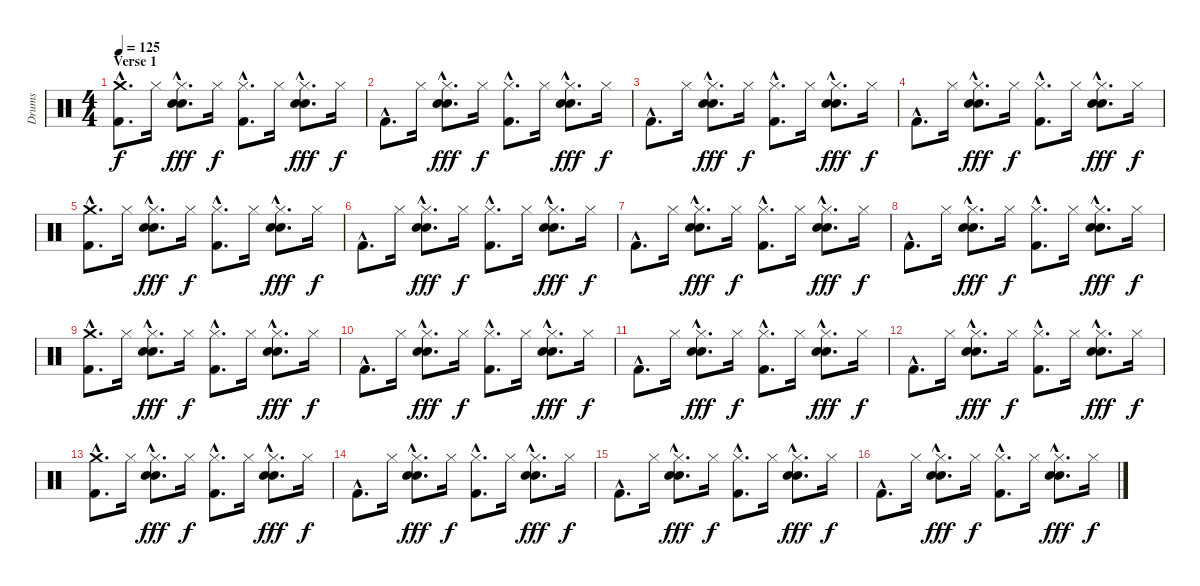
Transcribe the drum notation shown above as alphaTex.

\track ("Drums" "Drums") {instrument percussion}
\staff {score}
\articulation defaults
\ts (4 4)
\section ("" "Verse 1")
\tempo 125
\clef neutral
\ks c
("Crash medium (hit)"{hac} "Kick (hit) 2"{hac}).8{d dy f} "Hi-Hat (closed)".16 ("Hand Clap (hit)"{hac} "Hi-Hat (closed)"{hac} "Snare (hit) 2"{hac}).8{d dy fff} "Hi-Hat (closed)".16{dy f} ("Hi-Hat (closed)"{hac} "Kick (hit) 2"{hac}).8{d} "Hi-Hat (closed)".16 ("Hand Clap (hit)"{hac} "Hi-Hat (closed)"{hac} "Snare (hit) 2"{hac}).8{d dy fff} "Hi-Hat (closed)".16{dy f} |
"Kick (hit) 2"{hac}.8{d} "Hi-Hat (closed)".16 ("Hand Clap (hit)"{hac} "Hi-Hat (closed)"{hac} "Snare (hit) 2"{hac}).8{d dy fff} "Hi-Hat (closed)".16{dy f} ("Hi-Hat (closed)"{hac} "Kick (hit) 2"{hac}).8{d} "Hi-Hat (closed)".16 ("Hand Clap (hit)"{hac} "Hi-Hat (closed)"{hac} "Snare (hit) 2"{hac}).8{d dy fff} "Hi-Hat (closed)".16{dy f} |
"Kick (hit) 2"{hac}.8{d} "Hi-Hat (closed)".16 ("Hand Clap (hit)"{hac} "Hi-Hat (closed)"{hac} "Snare (hit) 2"{hac}).8{d dy fff} "Hi-Hat (closed)".16{dy f} ("Hi-Hat (closed)"{hac} "Kick (hit) 2"{hac}).8{d} "Hi-Hat (closed)".16 ("Hand Clap (hit)"{hac} "Hi-Hat (closed)"{hac} "Snare (hit) 2"{hac}).8{d dy fff} "Hi-Hat (closed)".16{dy f} |
"Kick (hit) 2"{hac}.8{d} "Hi-Hat (closed)".16 ("Hand Clap (hit)"{hac} "Hi-Hat (closed)"{hac} "Snare (hit) 2"{hac}).8{d dy fff} "Hi-Hat (closed)".16{dy f} ("Hi-Hat (closed)"{hac} "Kick (hit) 2"{hac}).8{d} "Hi-Hat (closed)".16 ("Hand Clap (hit)"{hac} "Hi-Hat (closed)"{hac} "Snare (hit) 2"{hac}).8{d dy fff} "Hi-Hat (closed)".16{dy f} |
("Crash medium (hit)"{hac} "Kick (hit) 2"{hac}).8{d} "Hi-Hat (closed)".16 ("Hand Clap (hit)"{hac} "Hi-Hat (closed)"{hac} "Snare (hit) 2"{hac}).8{d dy fff} "Hi-Hat (closed)".16{dy f} ("Hi-Hat (closed)"{hac} "Kick (hit) 2"{hac}).8{d} "Hi-Hat (closed)".16 ("Hand Clap (hit)"{hac} "Hi-Hat (closed)"{hac} "Snare (hit) 2"{hac}).8{d dy fff} "Hi-Hat (closed)".16{dy f} |
"Kick (hit) 2"{hac}.8{d} "Hi-Hat (closed)".16 ("Hand Clap (hit)"{hac} "Hi-Hat (closed)"{hac} "Snare (hit) 2"{hac}).8{d dy fff} "Hi-Hat (closed)".16{dy f} ("Hi-Hat (closed)"{hac} "Kick (hit) 2"{hac}).8{d} "Hi-Hat (closed)".16 ("Hand Clap (hit)"{hac} "Hi-Hat (closed)"{hac} "Snare (hit) 2"{hac}).8{d dy fff} "Hi-Hat (closed)".16{dy f} |
"Kick (hit) 2"{hac}.8{d} "Hi-Hat (closed)".16 ("Hand Clap (hit)"{hac} "Hi-Hat (closed)"{hac} "Snare (hit) 2"{hac}).8{d dy fff} "Hi-Hat (closed)".16{dy f} ("Hi-Hat (closed)"{hac} "Kick (hit) 2"{hac}).8{d} "Hi-Hat (closed)".16 ("Hand Clap (hit)"{hac} "Hi-Hat (closed)"{hac} "Snare (hit) 2"{hac}).8{d dy fff} "Hi-Hat (closed)".16{dy f} |
"Kick (hit) 2"{hac}.8{d} "Hi-Hat (closed)".16 ("Hand Clap (hit)"{hac} "Hi-Hat (closed)"{hac} "Snare (hit) 2"{hac}).8{d dy fff} "Hi-Hat (closed)".16{dy f} ("Hi-Hat (closed)"{hac} "Kick (hit) 2"{hac}).8{d} "Hi-Hat (closed)".16 ("Hand Clap (hit)"{hac} "Hi-Hat (closed)"{hac} "Snare (hit) 2"{hac}).8{d dy fff} "Hi-Hat (closed)".16{dy f} |
("Crash medium (hit)"{hac} "Kick (hit) 2"{hac}).8{d} "Hi-Hat (closed)".16 ("Hand Clap (hit)"{hac} "Hi-Hat (closed)"{hac} "Snare (hit) 2"{hac}).8{d dy fff} "Hi-Hat (closed)".16{dy f} ("Hi-Hat (closed)"{hac} "Kick (hit) 2"{hac}).8{d} "Hi-Hat (closed)".16 ("Hand Clap (hit)"{hac} "Hi-Hat (closed)"{hac} "Snare (hit) 2"{hac}).8{d dy fff} "Hi-Hat (closed)".16{dy f} |
"Kick (hit) 2"{hac}.8{d} "Hi-Hat (closed)".16 ("Hand Clap (hit)"{hac} "Hi-Hat (closed)"{hac} "Snare (hit) 2"{hac}).8{d dy fff} "Hi-Hat (closed)".16{dy f} ("Hi-Hat (closed)"{hac} "Kick (hit) 2"{hac}).8{d} "Hi-Hat (closed)".16 ("Hand Clap (hit)"{hac} "Hi-Hat (closed)"{hac} "Snare (hit) 2"{hac}).8{d dy fff} "Hi-Hat (closed)".16{dy f} |
"Kick (hit) 2"{hac}.8{d} "Hi-Hat (closed)".16 ("Hand Clap (hit)"{hac} "Hi-Hat (closed)"{hac} "Snare (hit) 2"{hac}).8{d dy fff} "Hi-Hat (closed)".16{dy f} ("Hi-Hat (closed)"{hac} "Kick (hit) 2"{hac}).8{d} "Hi-Hat (closed)".16 ("Hand Clap (hit)"{hac} "Hi-Hat (closed)"{hac} "Snare (hit) 2"{hac}).8{d dy fff} "Hi-Hat (closed)".16{dy f} |
"Kick (hit) 2"{hac}.8{d} "Hi-Hat (closed)".16 ("Hand Clap (hit)"{hac} "Hi-Hat (closed)"{hac} "Snare (hit) 2"{hac}).8{d dy fff} "Hi-Hat (closed)".16{dy f} ("Hi-Hat (closed)"{hac} "Kick (hit) 2"{hac}).8{d} "Hi-Hat (closed)".16 ("Hand Clap (hit)"{hac} "Hi-Hat (closed)"{hac} "Snare (hit) 2"{hac}).8{d dy fff} "Hi-Hat (closed)".16{dy f} |
("Crash medium (hit)"{hac} "Kick (hit) 2"{hac}).8{d} "Hi-Hat (closed)".16 ("Hand Clap (hit)"{hac} "Hi-Hat (closed)"{hac} "Snare (hit) 2"{hac}).8{d dy fff} "Hi-Hat (closed)".16{dy f} ("Hi-Hat (closed)"{hac} "Kick (hit) 2"{hac}).8{d} "Hi-Hat (closed)".16 ("Hand Clap (hit)"{hac} "Hi-Hat (closed)"{hac} "Snare (hit) 2"{hac}).8{d dy fff} "Hi-Hat (closed)".16{dy f} |
"Kick (hit) 2"{hac}.8{d} "Hi-Hat (closed)".16 ("Hand Clap (hit)"{hac} "Hi-Hat (closed)"{hac} "Snare (hit) 2"{hac}).8{d dy fff} "Hi-Hat (closed)".16{dy f} ("Hi-Hat (closed)"{hac} "Kick (hit) 2"{hac}).8{d} "Hi-Hat (closed)".16 ("Hand Clap (hit)"{hac} "Hi-Hat (closed)"{hac} "Snare (hit) 2"{hac}).8{d dy fff} "Hi-Hat (closed)".16{dy f} |
"Kick (hit) 2"{hac}.8{d} "Hi-Hat (closed)".16 ("Hand Clap (hit)"{hac} "Hi-Hat (closed)"{hac} "Snare (hit) 2"{hac}).8{d dy fff} "Hi-Hat (closed)".16{dy f} ("Hi-Hat (closed)"{hac} "Kick (hit) 2"{hac}).8{d} "Hi-Hat (closed)".16 ("Hand Clap (hit)"{hac} "Hi-Hat (closed)"{hac} "Snare (hit) 2"{hac}).8{d dy fff} "Hi-Hat (closed)".16{dy f} |
"Kick (hit) 2"{hac}.8{d} "Hi-Hat (closed)".16 ("Hand Clap (hit)"{hac} "Hi-Hat (closed)"{hac} "Snare (hit) 2"{hac}).8{d dy fff} "Hi-Hat (closed)".16{dy f} ("Hi-Hat (closed)"{hac} "Kick (hit) 2"{hac}).8{d} "Hi-Hat (closed)".16 ("Hand Clap (hit)"{hac} "Hi-Hat (closed)"{hac} "Snare (hit) 2"{hac}).8{d dy fff} "Hi-Hat (closed)".16{dy f}
